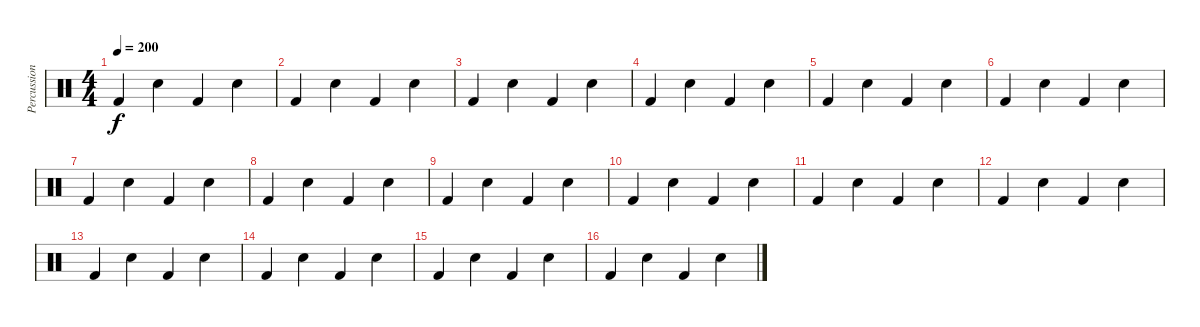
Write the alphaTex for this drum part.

\track ("Percussion" "Percussion") {instrument percussion}
\staff {score}
\articulation defaults
\ts (4 4)
\tempo 200
\clef neutral
\ks c "Kick (hit) 2".4{dy f} "Electric Snare (hit)".4 "Kick (hit) 2".4 "Electric Snare (hit)".4
|
"Kick (hit) 2".4 "Electric Snare (hit)".4 "Kick (hit) 2".4 "Electric Snare (hit)".4 |
"Kick (hit) 2".4 "Electric Snare (hit)".4 "Kick (hit) 2".4 "Electric Snare (hit)".4 |
"Kick (hit) 2".4 "Electric Snare (hit)".4 "Kick (hit) 2".4 "Electric Snare (hit)".4 |
"Kick (hit) 2".4 "Electric Snare (hit)".4 "Kick (hit) 2".4 "Electric Snare (hit)".4 |
"Kick (hit) 2".4 "Electric Snare (hit)".4 "Kick (hit) 2".4 "Electric Snare (hit)".4 |
"Kick (hit) 2".4 "Electric Snare (hit)".4 "Kick (hit) 2".4 "Electric Snare (hit)".4 |
"Kick (hit) 2".4 "Electric Snare (hit)".4 "Kick (hit) 2".4 "Electric Snare (hit)".4 |
"Kick (hit) 2".4 "Electric Snare (hit)".4 "Kick (hit) 2".4 "Electric Snare (hit)".4 |
"Kick (hit) 2".4 "Electric Snare (hit)".4 "Kick (hit) 2".4 "Electric Snare (hit)".4 |
"Kick (hit) 2".4 "Electric Snare (hit)".4 "Kick (hit) 2".4 "Electric Snare (hit)".4 |
"Kick (hit) 2".4 "Electric Snare (hit)".4 "Kick (hit) 2".4 "Electric Snare (hit)".4 |
"Kick (hit) 2".4 "Electric Snare (hit)".4 "Kick (hit) 2".4 "Electric Snare (hit)".4 |
"Kick (hit) 2".4 "Electric Snare (hit)".4 "Kick (hit) 2".4 "Electric Snare (hit)".4 |
"Kick (hit) 2".4 "Electric Snare (hit)".4 "Kick (hit) 2".4 "Electric Snare (hit)".4 |
"Kick (hit) 2".4 "Electric Snare (hit)".4 "Kick (hit) 2".4 "Electric Snare (hit)".4
